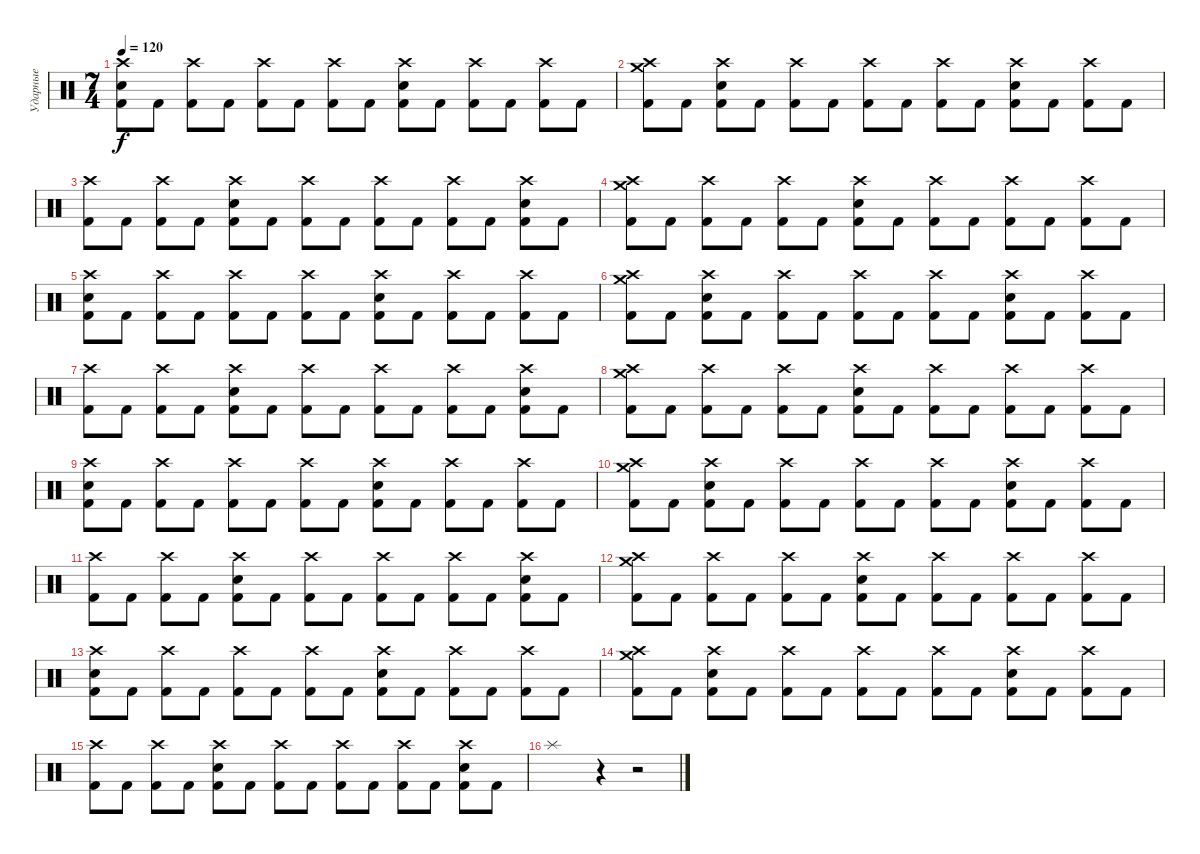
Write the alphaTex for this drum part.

\track ("Ударные" "Ударные") {instrument percussion}
\staff {score}
\articulation defaults
\ts (7 4)
\tempo 120
\clef neutral
\ks c
("Crash high (hit)" "Electric Snare (hit)" "Kick (hit) 2").8{dy f} "Kick (hit) 2".8 ("Crash high (hit)" "Kick (hit) 2").8 "Kick (hit) 2".8 ("Crash high (hit)" "Kick (hit) 2").8 "Kick (hit) 2".8 ("Crash high (hit)" "Kick (hit) 2").8 "Kick (hit) 2".8 ("Crash high (hit)" "Electric Snare (hit)" "Kick (hit) 2").8 "Kick (hit) 2".8 ("Crash high (hit)" "Kick (hit) 2").8 "Kick (hit) 2".8 ("Crash high (hit)" "Kick (hit) 2").8 "Kick (hit) 2".8 |
("Crash high (hit)" "Crash medium (hit)" "Kick (hit) 2").8 "Kick (hit) 2".8 ("Crash high (hit)" "Electric Snare (hit)" "Kick (hit) 2").8 "Kick (hit) 2".8 ("Crash high (hit)" "Kick (hit) 2").8 "Kick (hit) 2".8 ("Crash high (hit)" "Kick (hit) 2").8 "Kick (hit) 2".8 ("Crash high (hit)" "Kick (hit) 2").8 "Kick (hit) 2".8 ("Crash high (hit)" "Electric Snare (hit)" "Kick (hit) 2").8 "Kick (hit) 2".8 ("Crash high (hit)" "Kick (hit) 2").8 "Kick (hit) 2".8 |
("Crash high (hit)" "Kick (hit) 2").8 "Kick (hit) 2".8 ("Crash high (hit)" "Kick (hit) 2").8 "Kick (hit) 2".8 ("Crash high (hit)" "Electric Snare (hit)" "Kick (hit) 2").8 "Kick (hit) 2".8 ("Crash high (hit)" "Kick (hit) 2").8 "Kick (hit) 2".8 ("Crash high (hit)" "Kick (hit) 2").8 "Kick (hit) 2".8 ("Crash high (hit)" "Kick (hit) 2").8 "Kick (hit) 2".8 ("Crash high (hit)" "Electric Snare (hit)" "Kick (hit) 2").8 "Kick (hit) 2".8 |
("Crash high (hit)" "Crash medium (hit)" "Kick (hit) 2").8 "Kick (hit) 2".8 ("Crash high (hit)" "Kick (hit) 2").8 "Kick (hit) 2".8 ("Crash high (hit)" "Kick (hit) 2").8 "Kick (hit) 2".8 ("Crash high (hit)" "Electric Snare (hit)" "Kick (hit) 2").8 "Kick (hit) 2".8 ("Crash high (hit)" "Kick (hit) 2").8 "Kick (hit) 2".8 ("Crash high (hit)" "Kick (hit) 2").8 "Kick (hit) 2".8 ("Crash high (hit)" "Kick (hit) 2").8 "Kick (hit) 2".8 |
("Crash high (hit)" "Electric Snare (hit)" "Kick (hit) 2").8 "Kick (hit) 2".8 ("Crash high (hit)" "Kick (hit) 2").8 "Kick (hit) 2".8 ("Crash high (hit)" "Kick (hit) 2").8 "Kick (hit) 2".8 ("Crash high (hit)" "Kick (hit) 2").8 "Kick (hit) 2".8 ("Crash high (hit)" "Electric Snare (hit)" "Kick (hit) 2").8 "Kick (hit) 2".8 ("Crash high (hit)" "Kick (hit) 2").8 "Kick (hit) 2".8 ("Crash high (hit)" "Kick (hit) 2").8 "Kick (hit) 2".8 |
("Crash high (hit)" "Crash medium (hit)" "Kick (hit) 2").8 "Kick (hit) 2".8 ("Crash high (hit)" "Electric Snare (hit)" "Kick (hit) 2").8 "Kick (hit) 2".8 ("Crash high (hit)" "Kick (hit) 2").8 "Kick (hit) 2".8 ("Crash high (hit)" "Kick (hit) 2").8 "Kick (hit) 2".8 ("Crash high (hit)" "Kick (hit) 2").8 "Kick (hit) 2".8 ("Crash high (hit)" "Electric Snare (hit)" "Kick (hit) 2").8 "Kick (hit) 2".8 ("Crash high (hit)" "Kick (hit) 2").8 "Kick (hit) 2".8 |
("Crash high (hit)" "Kick (hit) 2").8 "Kick (hit) 2".8 ("Crash high (hit)" "Kick (hit) 2").8 "Kick (hit) 2".8 ("Crash high (hit)" "Electric Snare (hit)" "Kick (hit) 2").8 "Kick (hit) 2".8 ("Crash high (hit)" "Kick (hit) 2").8 "Kick (hit) 2".8 ("Crash high (hit)" "Kick (hit) 2").8 "Kick (hit) 2".8 ("Crash high (hit)" "Kick (hit) 2").8 "Kick (hit) 2".8 ("Crash high (hit)" "Electric Snare (hit)" "Kick (hit) 2").8 "Kick (hit) 2".8 |
("Crash high (hit)" "Crash medium (hit)" "Kick (hit) 2").8 "Kick (hit) 2".8 ("Crash high (hit)" "Kick (hit) 2").8 "Kick (hit) 2".8 ("Crash high (hit)" "Kick (hit) 2").8 "Kick (hit) 2".8 ("Crash high (hit)" "Electric Snare (hit)" "Kick (hit) 2").8 "Kick (hit) 2".8 ("Crash high (hit)" "Kick (hit) 2").8 "Kick (hit) 2".8 ("Crash high (hit)" "Kick (hit) 2").8 "Kick (hit) 2".8 ("Crash high (hit)" "Kick (hit) 2").8 "Kick (hit) 2".8 |
("Crash high (hit)" "Electric Snare (hit)" "Kick (hit) 2").8 "Kick (hit) 2".8 ("Crash high (hit)" "Kick (hit) 2").8 "Kick (hit) 2".8 ("Crash high (hit)" "Kick (hit) 2").8 "Kick (hit) 2".8 ("Crash high (hit)" "Kick (hit) 2").8 "Kick (hit) 2".8 ("Crash high (hit)" "Electric Snare (hit)" "Kick (hit) 2").8 "Kick (hit) 2".8 ("Crash high (hit)" "Kick (hit) 2").8 "Kick (hit) 2".8 ("Crash high (hit)" "Kick (hit) 2").8 "Kick (hit) 2".8 |
("Crash high (hit)" "Crash medium (hit)" "Kick (hit) 2").8 "Kick (hit) 2".8 ("Crash high (hit)" "Electric Snare (hit)" "Kick (hit) 2").8 "Kick (hit) 2".8 ("Crash high (hit)" "Kick (hit) 2").8 "Kick (hit) 2".8 ("Crash high (hit)" "Kick (hit) 2").8 "Kick (hit) 2".8 ("Crash high (hit)" "Kick (hit) 2").8 "Kick (hit) 2".8 ("Crash high (hit)" "Electric Snare (hit)" "Kick (hit) 2").8 "Kick (hit) 2".8 ("Crash high (hit)" "Kick (hit) 2").8 "Kick (hit) 2".8 |
("Crash high (hit)" "Kick (hit) 2").8 "Kick (hit) 2".8 ("Crash high (hit)" "Kick (hit) 2").8 "Kick (hit) 2".8 ("Crash high (hit)" "Electric Snare (hit)" "Kick (hit) 2").8 "Kick (hit) 2".8 ("Crash high (hit)" "Kick (hit) 2").8 "Kick (hit) 2".8 ("Crash high (hit)" "Kick (hit) 2").8 "Kick (hit) 2".8 ("Crash high (hit)" "Kick (hit) 2").8 "Kick (hit) 2".8 ("Crash high (hit)" "Electric Snare (hit)" "Kick (hit) 2").8 "Kick (hit) 2".8 |
("Crash high (hit)" "Crash medium (hit)" "Kick (hit) 2").8 "Kick (hit) 2".8 ("Crash high (hit)" "Kick (hit) 2").8 "Kick (hit) 2".8 ("Crash high (hit)" "Kick (hit) 2").8 "Kick (hit) 2".8 ("Crash high (hit)" "Electric Snare (hit)" "Kick (hit) 2").8 "Kick (hit) 2".8 ("Crash high (hit)" "Kick (hit) 2").8 "Kick (hit) 2".8 ("Crash high (hit)" "Kick (hit) 2").8 "Kick (hit) 2".8 ("Crash high (hit)" "Kick (hit) 2").8 "Kick (hit) 2".8 |
("Crash high (hit)" "Electric Snare (hit)" "Kick (hit) 2").8 "Kick (hit) 2".8 ("Crash high (hit)" "Kick (hit) 2").8 "Kick (hit) 2".8 ("Crash high (hit)" "Kick (hit) 2").8 "Kick (hit) 2".8 ("Crash high (hit)" "Kick (hit) 2").8 "Kick (hit) 2".8 ("Crash high (hit)" "Electric Snare (hit)" "Kick (hit) 2").8 "Kick (hit) 2".8 ("Crash high (hit)" "Kick (hit) 2").8 "Kick (hit) 2".8 ("Crash high (hit)" "Kick (hit) 2").8 "Kick (hit) 2".8 |
("Crash high (hit)" "Crash medium (hit)" "Kick (hit) 2").8 "Kick (hit) 2".8 ("Crash high (hit)" "Electric Snare (hit)" "Kick (hit) 2").8 "Kick (hit) 2".8 ("Crash high (hit)" "Kick (hit) 2").8 "Kick (hit) 2".8 ("Crash high (hit)" "Kick (hit) 2").8 "Kick (hit) 2".8 ("Crash high (hit)" "Kick (hit) 2").8 "Kick (hit) 2".8 ("Crash high (hit)" "Electric Snare (hit)" "Kick (hit) 2").8 "Kick (hit) 2".8 ("Crash high (hit)" "Kick (hit) 2").8 "Kick (hit) 2".8 |
("Crash high (hit)" "Kick (hit) 2").8 "Kick (hit) 2".8 ("Crash high (hit)" "Kick (hit) 2").8 "Kick (hit) 2".8 ("Crash high (hit)" "Electric Snare (hit)" "Kick (hit) 2").8 "Kick (hit) 2".8 ("Crash high (hit)" "Kick (hit) 2").8 "Kick (hit) 2".8 ("Crash high (hit)" "Kick (hit) 2").8 "Kick (hit) 2".8 ("Crash high (hit)" "Kick (hit) 2").8 "Kick (hit) 2".8 ("Crash high (hit)" "Electric Snare (hit)" "Kick (hit) 2").8 "Kick (hit) 2".8 |
"Splash (hit)".1 r.4 r.2
